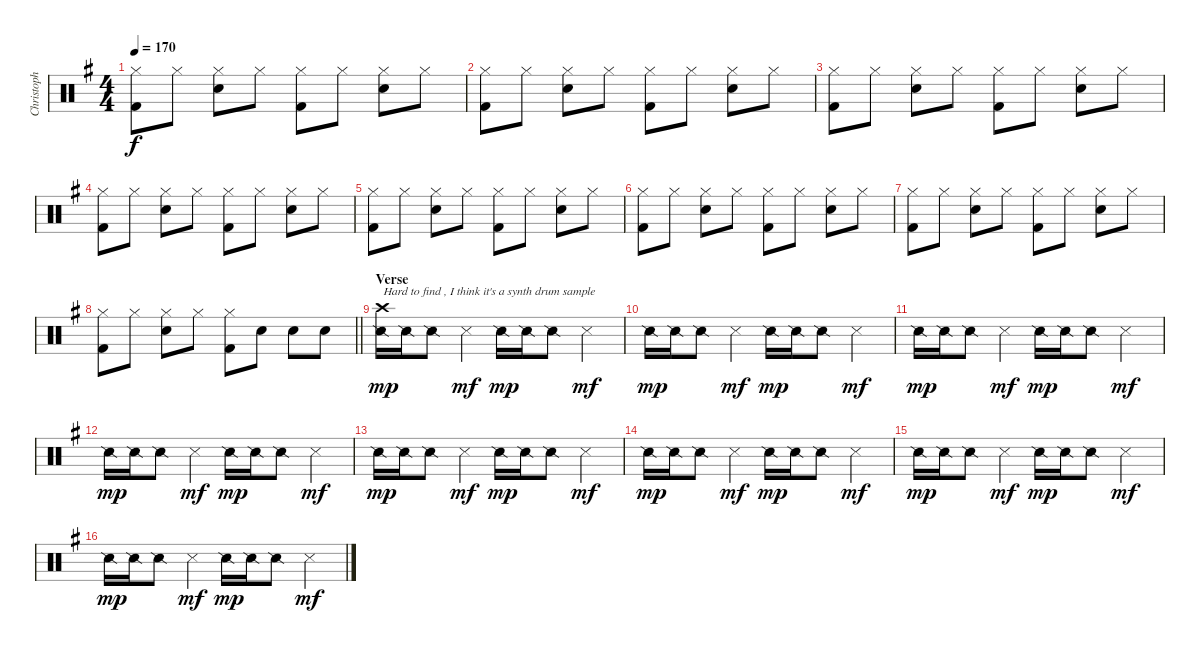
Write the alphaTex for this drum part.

\track ("Christoph Doom Schneider - Drums" "Christoph ") {instrument percussion}
\staff {score}
\articulation defaults
\ts (4 4)
\tempo 170
\clef neutral
\ks g
("Hi-Hat (closed)" "Kick (hit) 2").8{dy f} "Hi-Hat (closed)".8 ("Hi-Hat (closed)" "Electric Snare (hit)").8 "Hi-Hat (closed)".8 ("Hi-Hat (closed)" "Kick (hit) 2").8 "Hi-Hat (closed)".8 ("Hi-Hat (closed)" "Electric Snare (hit)").8 "Hi-Hat (closed)".8 |
("Hi-Hat (closed)" "Kick (hit) 2").8 "Hi-Hat (closed)".8 ("Hi-Hat (closed)" "Electric Snare (hit)").8 "Hi-Hat (closed)".8 ("Hi-Hat (closed)" "Kick (hit) 2").8 "Hi-Hat (closed)".8 ("Hi-Hat (closed)" "Electric Snare (hit)").8 "Hi-Hat (closed)".8 |
("Hi-Hat (closed)" "Kick (hit) 2").8 "Hi-Hat (closed)".8 ("Hi-Hat (closed)" "Electric Snare (hit)").8 "Hi-Hat (closed)".8 ("Hi-Hat (closed)" "Kick (hit) 2").8 "Hi-Hat (closed)".8 ("Hi-Hat (closed)" "Electric Snare (hit)").8 "Hi-Hat (closed)".8 |
("Hi-Hat (closed)" "Kick (hit) 2").8 "Hi-Hat (closed)".8 ("Hi-Hat (closed)" "Electric Snare (hit)").8 "Hi-Hat (closed)".8 ("Hi-Hat (closed)" "Kick (hit) 2").8 "Hi-Hat (closed)".8 ("Hi-Hat (closed)" "Electric Snare (hit)").8 "Hi-Hat (closed)".8 |
("Hi-Hat (closed)" "Kick (hit) 2").8 "Hi-Hat (closed)".8 ("Hi-Hat (closed)" "Electric Snare (hit)").8 "Hi-Hat (closed)".8 ("Hi-Hat (closed)" "Kick (hit) 2").8 "Hi-Hat (closed)".8 ("Hi-Hat (closed)" "Electric Snare (hit)").8 "Hi-Hat (closed)".8 |
("Hi-Hat (closed)" "Kick (hit) 2").8 "Hi-Hat (closed)".8 ("Hi-Hat (closed)" "Electric Snare (hit)").8 "Hi-Hat (closed)".8 ("Hi-Hat (closed)" "Kick (hit) 2").8 "Hi-Hat (closed)".8 ("Hi-Hat (closed)" "Electric Snare (hit)").8 "Hi-Hat (closed)".8 |
("Hi-Hat (closed)" "Kick (hit) 2").8 "Hi-Hat (closed)".8 ("Hi-Hat (closed)" "Electric Snare (hit)").8 "Hi-Hat (closed)".8 ("Hi-Hat (closed)" "Kick (hit) 2").8 "Hi-Hat (closed)".8 ("Hi-Hat (closed)" "Electric Snare (hit)").8 "Hi-Hat (closed)".8 |
\barLineRight lightlight
("Hi-Hat (closed)" "Kick (hit) 2").8 "Hi-Hat (closed)".8 ("Hi-Hat (closed)" "Electric Snare (hit)").8 "Hi-Hat (closed)".8 ("Hi-Hat (closed)" "Kick (hit) 2").8 "Electric Snare (hit)".8 "Electric Snare (hit)".8 "Electric Snare (hit)".8 |
\section ("" "Verse ")
("Crash high (hit)" "Snare (side stick) 2").16{txt "Hard to find , I think it's a synth drum sample" dy mp} "Snare (side stick) 2".16 "Snare (side stick) 2".8 "Snare (side stick) 3".4{dy mf} "Snare (side stick) 2".16{dy mp} "Snare (side stick) 2".16 "Snare (side stick) 2".8 "Snare (side stick) 3".4{dy mf} |
"Snare (side stick) 2".16{dy mp} "Snare (side stick) 2".16 "Snare (side stick) 2".8 "Snare (side stick) 3".4{dy mf} "Snare (side stick) 2".16{dy mp} "Snare (side stick) 2".16 "Snare (side stick) 2".8 "Snare (side stick) 3".4{dy mf} |
"Snare (side stick) 2".16{dy mp} "Snare (side stick) 2".16 "Snare (side stick) 2".8 "Snare (side stick) 3".4{dy mf} "Snare (side stick) 2".16{dy mp} "Snare (side stick) 2".16 "Snare (side stick) 2".8 "Snare (side stick) 3".4{dy mf} |
"Snare (side stick) 2".16{dy mp} "Snare (side stick) 2".16 "Snare (side stick) 2".8 "Snare (side stick) 3".4{dy mf} "Snare (side stick) 2".16{dy mp} "Snare (side stick) 2".16 "Snare (side stick) 2".8 "Snare (side stick) 3".4{dy mf} |
"Snare (side stick) 2".16{dy mp} "Snare (side stick) 2".16 "Snare (side stick) 2".8 "Snare (side stick) 3".4{dy mf} "Snare (side stick) 2".16{dy mp} "Snare (side stick) 2".16 "Snare (side stick) 2".8 "Snare (side stick) 3".4{dy mf} |
"Snare (side stick) 2".16{dy mp} "Snare (side stick) 2".16 "Snare (side stick) 2".8 "Snare (side stick) 3".4{dy mf} "Snare (side stick) 2".16{dy mp} "Snare (side stick) 2".16 "Snare (side stick) 2".8 "Snare (side stick) 3".4{dy mf} |
"Snare (side stick) 2".16{dy mp} "Snare (side stick) 2".16 "Snare (side stick) 2".8 "Snare (side stick) 3".4{dy mf} "Snare (side stick) 2".16{dy mp} "Snare (side stick) 2".16 "Snare (side stick) 2".8 "Snare (side stick) 3".4{dy mf} |
"Snare (side stick) 2".16{dy mp} "Snare (side stick) 2".16 "Snare (side stick) 2".8 "Snare (side stick) 3".4{dy mf} "Snare (side stick) 2".16{dy mp} "Snare (side stick) 2".16 "Snare (side stick) 2".8 "Snare (side stick) 3".4{dy mf}
